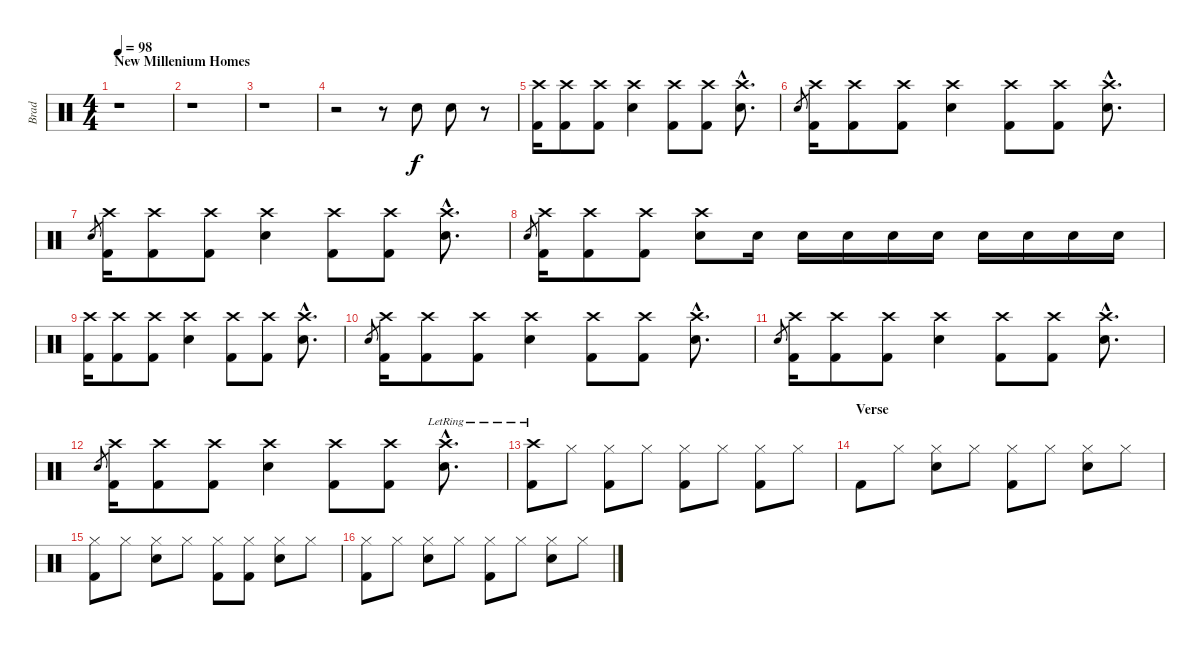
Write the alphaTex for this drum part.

\track ("Brad" "Brad") {instrument percussion}
\staff {score}
\articulation defaults
\ts (4 4)
\section ("" "New Millenium Homes")
\tempo 98
\clef neutral
\ks c
r.1{dy f} |
r.1 |
r.1 |
r.2 r.8 "Snare (hit) 2".8 "Snare (hit) 2".8 r.8 |
("Crash high (hit)" "Kick (hit) 2").16 ("Crash high (hit)" "Kick (hit) 2").8 ("Crash high (hit)" "Kick (hit) 2").8 ("Crash high (hit)" "Snare (hit) 2").4 ("Crash high (hit)" "Kick (hit) 2").8 ("Crash high (hit)" "Kick (hit) 2").8 ("Crash high (hit)"{hac} "Snare (hit) 2"{hac}).8{d} |
"Snare (hit) 2".8{gr} ("Crash high (hit)" "Kick (hit) 2").16 ("Crash high (hit)" "Kick (hit) 2").8 ("Crash high (hit)" "Kick (hit) 2").8 ("Crash high (hit)" "Snare (hit) 2").4 ("Crash high (hit)" "Kick (hit) 2").8 ("Crash high (hit)" "Kick (hit) 2").8 ("Crash high (hit)"{hac} "Snare (hit) 2"{hac}).8{d} |
"Snare (hit) 2".8{gr} ("Crash high (hit)" "Kick (hit) 2").16 ("Crash high (hit)" "Kick (hit) 2").8 ("Crash high (hit)" "Kick (hit) 2").8 ("Crash high (hit)" "Snare (hit) 2").4 ("Crash high (hit)" "Kick (hit) 2").8 ("Crash high (hit)" "Kick (hit) 2").8 ("Crash high (hit)"{hac} "Snare (hit) 2"{hac}).8{d} |
"Snare (hit) 2".8{gr} ("Crash high (hit)" "Kick (hit) 2").16 ("Crash high (hit)" "Kick (hit) 2").8 ("Crash high (hit)" "Kick (hit) 2").8 ("Crash high (hit)" "Snare (hit) 2").8 "Snare (hit) 2".16 "Snare (hit) 2".16 "Snare (hit) 2".16 "Snare (hit) 2".16 "Snare (hit) 2".16 "Snare (hit) 2".16 "Snare (hit) 2".16 "Snare (hit) 2".16 "Snare (hit) 2".16 |
("Crash high (hit)" "Kick (hit) 2").16 ("Crash high (hit)" "Kick (hit) 2").8 ("Crash high (hit)" "Kick (hit) 2").8 ("Crash high (hit)" "Snare (hit) 2").4 ("Crash high (hit)" "Kick (hit) 2").8 ("Crash high (hit)" "Kick (hit) 2").8 ("Crash high (hit)"{hac} "Snare (hit) 2"{hac}).8{d} |
"Snare (hit) 2".8{gr} ("Crash high (hit)" "Kick (hit) 2").16 ("Crash high (hit)" "Kick (hit) 2").8 ("Crash high (hit)" "Kick (hit) 2").8 ("Crash high (hit)" "Snare (hit) 2").4 ("Crash high (hit)" "Kick (hit) 2").8 ("Crash high (hit)" "Kick (hit) 2").8 ("Crash high (hit)"{hac} "Snare (hit) 2"{hac}).8{d} |
"Snare (hit) 2".8{gr} ("Crash high (hit)" "Kick (hit) 2").16 ("Crash high (hit)" "Kick (hit) 2").8 ("Crash high (hit)" "Kick (hit) 2").8 ("Crash high (hit)" "Snare (hit) 2").4 ("Crash high (hit)" "Kick (hit) 2").8 ("Crash high (hit)" "Kick (hit) 2").8 ("Crash high (hit)"{hac} "Snare (hit) 2"{hac}).8{d} |
"Snare (hit) 2".8{gr} ("Crash high (hit)" "Kick (hit) 2").16 ("Crash high (hit)" "Kick (hit) 2").8 ("Crash high (hit)" "Kick (hit) 2").8 ("Crash high (hit)" "Snare (hit) 2").4 ("Crash high (hit)" "Kick (hit) 2").8 ("Crash high (hit)" "Kick (hit) 2").8 ("Crash high (hit)"{hac lr} "Snare (hit) 2"{hac}).8{d} |
("Crash high (hit)"{lr} "Kick (hit) 2").8 "Hi-Hat (closed)".8 ("Hi-Hat (closed)" "Kick (hit) 2").8 "Hi-Hat (closed)".8 ("Hi-Hat (closed)" "Kick (hit) 2").8 "Hi-Hat (closed)".8 ("Hi-Hat (closed)" "Kick (hit) 2").8 "Hi-Hat (closed)".8 |
\section ("" "Verse")
"Kick (hit) 2".8 "Hi-Hat (closed)".8 ("Hi-Hat (closed)" "Snare (hit) 2").8 "Hi-Hat (closed)".8 ("Hi-Hat (closed)" "Kick (hit) 2").8 "Hi-Hat (closed)".8 ("Hi-Hat (closed)" "Snare (hit) 2").8 "Hi-Hat (closed)".8 |
("Hi-Hat (closed)" "Kick (hit) 2").8 "Hi-Hat (closed)".8 ("Hi-Hat (closed)" "Snare (hit) 2").8 "Hi-Hat (closed)".8 ("Hi-Hat (closed)" "Kick (hit) 2").8 ("Hi-Hat (closed)" "Kick (hit) 2").8 ("Hi-Hat (closed)" "Snare (hit) 2").8 "Hi-Hat (closed)".8 |
("Hi-Hat (closed)" "Kick (hit) 2").8 "Hi-Hat (closed)".8 ("Hi-Hat (closed)" "Snare (hit) 2").8 "Hi-Hat (closed)".8 ("Hi-Hat (closed)" "Kick (hit) 2").8 "Hi-Hat (closed)".8 ("Hi-Hat (closed)" "Snare (hit) 2").8 "Hi-Hat (closed)".8
